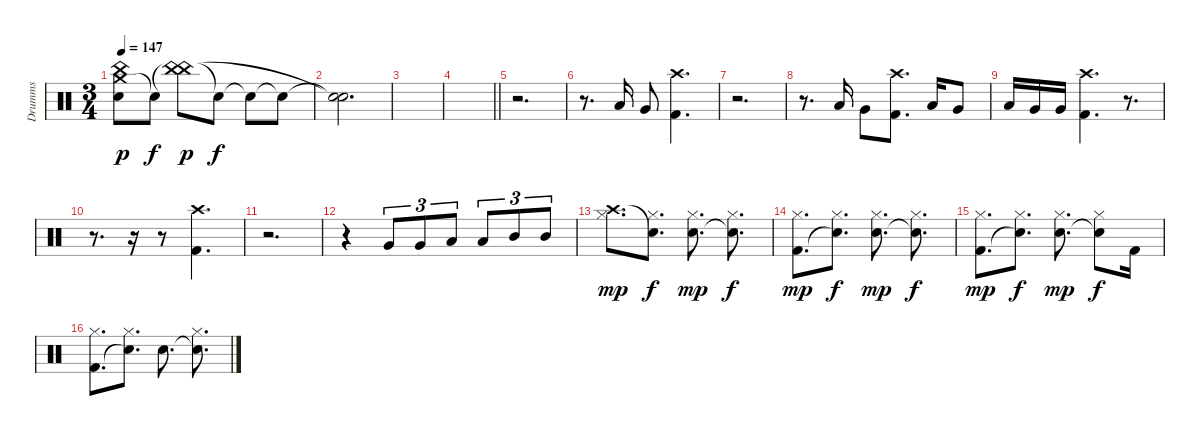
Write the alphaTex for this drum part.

\track ("Drumms" "Drumms") {instrument percussion}
\staff {score}
\articulation defaults
\ts (3 4)
\section ("" "")
\tempo 147
\clef neutral
\ks c
("Crash medium (hit)" "China (hit)" "Electric Snare (hit)").8{dy p balance 3} "Snare (hit)"{t}.8{dy f} ("China (hit)"{t} "China (hit)").8{dy p balance 14} "Snare (hit)"{t}.8{dy f} "Snare (hit)"{t}.8 "Snare (hit)"{t}.8 |
("Snare (hit)"{t} "Snare (hit)"{t}).2{d} |
|
\barLineRight lightlight
|
\section ("" "")
r.2{d} |
r.8{d} "Low Tom (hit)".16 "Very Low Tom (hit)".8 ("Crash high (hit)" "Kick (hit) 2").4{d} |
r.2{d} |
r.8{d} "Low Tom (hit)".16 "Very Low Tom (hit)".8 ("Crash high (hit)" "Kick (hit) 2").8{d} "Low Tom (hit)".16 "Very Low Tom (hit)".8 |
"Low Tom (hit)".16 "Very Low Tom (hit)".16 "Very Low Tom (hit)".16 ("Crash high (hit)" "Kick (hit) 2").4{d} r.8{d} |
r.8{d} r.16 r.8 ("Crash high (hit)" "Kick (hit) 2").4{d} |
r.2{d} |
r.4 "Very Low Tom (hit)".8{tu (3 2)} "Very Low Tom (hit)".8{tu (3 2)} "Low Tom (hit)".8{tu (3 2)} "Low Tom (hit)".8{tu (3 2)} "Mid Tom (hit)".8{tu (3 2)} "Mid Tom (hit)".8{tu (3 2)} |
("Crash high (hit)" "Hi-Hat (closed)").8{d dy mp} ("Snare (hit)"{t} "Hi-Hat (closed)").8{d dy f} ("Electric Snare (hit)" "Hi-Hat (closed)").8{d dy mp} ("Snare (hit)"{t} "Hi-Hat (closed)").8{d dy f} |
("Kick (hit) 2" "Hi-Hat (closed)").8{d dy mp} ("Snare (hit)"{t} "Hi-Hat (closed)").8{d dy f} ("Electric Snare (hit)" "Hi-Hat (closed)").8{d dy mp} ("Snare (hit)"{t} "Hi-Hat (closed)").8{d dy f} |
("Kick (hit) 2" "Hi-Hat (closed)").8{d dy mp} ("Snare (hit)"{t} "Hi-Hat (closed)").8{d dy f} ("Electric Snare (hit)" "Hi-Hat (closed)").8{d dy mp} ("Snare (hit)"{t} "Hi-Hat (closed)").8{dy f} "Kick (hit) 2".16 |
("Kick (hit) 2" "Hi-Hat (closed)").8{d} ("Snare (hit)"{t} "Hi-Hat (closed)").8{d} "Electric Snare (hit)".8{d} ("Snare (hit)"{t} "Hi-Hat (closed)").8{d}
